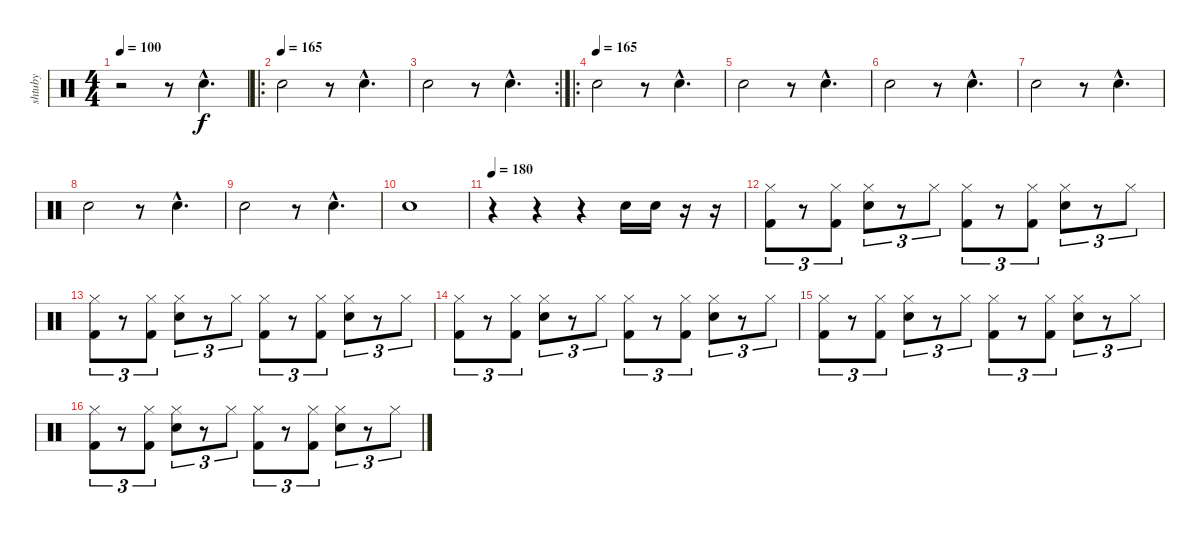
\track ("shtuby" "shtuby") {instrument percussion}
\staff {score}
\articulation defaults
\ts (4 4)
\tempo 100
\tempo 165
\tempo 100
\clef neutral
\ks c
r.2{dy f} r.8 "Electric Snare (hit)"{hac}.4{d} |
\ro
\tempo (165)
"Electric Snare (hit)".2 r.8 "Electric Snare (hit)"{hac}.4{d} |
\rc 2 "Electric Snare (hit)".2
r.8 "Electric Snare (hit)"{hac}.4{d} |
\ro
\tempo (165)
"Electric Snare (hit)".2 r.8 "Electric Snare (hit)"{hac}.4{d} |
"Electric Snare (hit)".2 r.8 "Electric Snare (hit)"{hac}.4{d} |
"Electric Snare (hit)".2 r.8 "Electric Snare (hit)"{hac}.4{d} |
"Electric Snare (hit)".2 r.8 "Electric Snare (hit)"{hac}.4{d} |
"Electric Snare (hit)".2 r.8 "Electric Snare (hit)"{hac}.4{d} |
"Electric Snare (hit)".2 r.8 "Electric Snare (hit)"{hac}.4{d} |
"Electric Snare (hit)".1 |
\tempo 180
r.4 r.4 r.4 "Electric Snare (hit)".16 "Electric Snare (hit)".16 r.16 r.16 |
("Hi-Hat (closed)" "Kick (hit) 2").8{tu (3 2)} r.8{tu (3 2)} ("Hi-Hat (closed)" "Kick (hit) 2").8{tu (3 2)} ("Hi-Hat (closed)" "Electric Snare (hit)").8{tu (3 2)} r.8{tu (3 2)} "Hi-Hat (closed)".8{tu (3 2)} ("Hi-Hat (closed)" "Kick (hit) 2").8{tu (3 2)} r.8{tu (3 2)} ("Hi-Hat (closed)" "Kick (hit) 2").8{tu (3 2)} ("Hi-Hat (closed)" "Electric Snare (hit)").8{tu (3 2)} r.8{tu (3 2)} "Hi-Hat (closed)".8{tu (3 2)} |
("Hi-Hat (closed)" "Kick (hit) 2").8{tu (3 2)} r.8{tu (3 2)} ("Hi-Hat (closed)" "Kick (hit) 2").8{tu (3 2)} ("Hi-Hat (closed)" "Electric Snare (hit)").8{tu (3 2)} r.8{tu (3 2)} "Hi-Hat (closed)".8{tu (3 2)} ("Hi-Hat (closed)" "Kick (hit) 2").8{tu (3 2)} r.8{tu (3 2)} ("Hi-Hat (closed)" "Kick (hit) 2").8{tu (3 2)} ("Hi-Hat (closed)" "Electric Snare (hit)").8{tu (3 2)} r.8{tu (3 2)} "Hi-Hat (closed)".8{tu (3 2)} |
("Hi-Hat (closed)" "Kick (hit) 2").8{tu (3 2)} r.8{tu (3 2)} ("Hi-Hat (closed)" "Kick (hit) 2").8{tu (3 2)} ("Hi-Hat (closed)" "Electric Snare (hit)").8{tu (3 2)} r.8{tu (3 2)} "Hi-Hat (closed)".8{tu (3 2)} ("Hi-Hat (closed)" "Kick (hit) 2").8{tu (3 2)} r.8{tu (3 2)} ("Hi-Hat (closed)" "Kick (hit) 2").8{tu (3 2)} ("Hi-Hat (closed)" "Electric Snare (hit)").8{tu (3 2)} r.8{tu (3 2)} "Hi-Hat (closed)".8{tu (3 2)} |
("Hi-Hat (closed)" "Kick (hit) 2").8{tu (3 2)} r.8{tu (3 2)} ("Hi-Hat (closed)" "Kick (hit) 2").8{tu (3 2)} ("Hi-Hat (closed)" "Electric Snare (hit)").8{tu (3 2)} r.8{tu (3 2)} "Hi-Hat (closed)".8{tu (3 2)} ("Hi-Hat (closed)" "Kick (hit) 2").8{tu (3 2)} r.8{tu (3 2)} ("Hi-Hat (closed)" "Kick (hit) 2").8{tu (3 2)} ("Hi-Hat (closed)" "Electric Snare (hit)").8{tu (3 2)} r.8{tu (3 2)} "Hi-Hat (closed)".8{tu (3 2)} |
("Hi-Hat (closed)" "Kick (hit) 2").8{tu (3 2)} r.8{tu (3 2)} ("Hi-Hat (closed)" "Kick (hit) 2").8{tu (3 2)} ("Hi-Hat (closed)" "Electric Snare (hit)").8{tu (3 2)} r.8{tu (3 2)} "Hi-Hat (closed)".8{tu (3 2)} ("Hi-Hat (closed)" "Kick (hit) 2").8{tu (3 2)} r.8{tu (3 2)} ("Hi-Hat (closed)" "Kick (hit) 2").8{tu (3 2)} ("Hi-Hat (closed)" "Electric Snare (hit)").8{tu (3 2)} r.8{tu (3 2)} "Hi-Hat (closed)".8{tu (3 2)}
